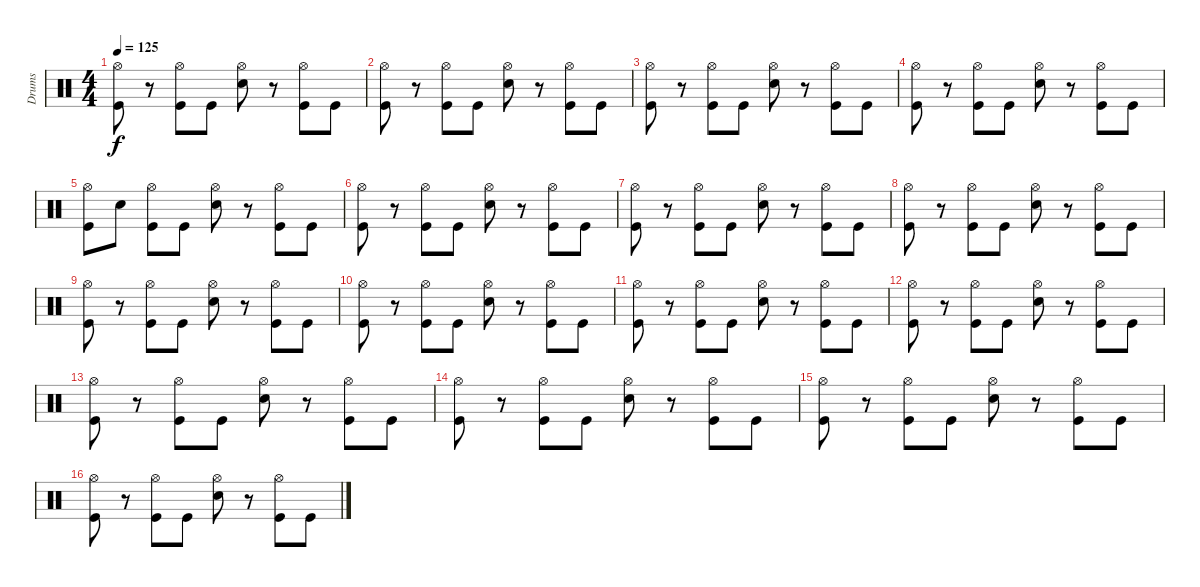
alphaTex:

\track ("Drums" "Drums") {instrument percussion}
\staff {score}
\articulation defaults
\ts (4 4)
\tempo 125
\clef neutral
\ks c
("Hi-Hat (open)" "Kick (hit)").8{dy f} r.8 ("Hi-Hat (open)" "Kick (hit)").8 "Kick (hit)".8 ("Hi-Hat (open)" "Snare (hit) 2").8 r.8 ("Hi-Hat (open)" "Kick (hit)").8 "Kick (hit)".8 |
("Hi-Hat (open)" "Kick (hit)").8 r.8 ("Hi-Hat (open)" "Kick (hit)").8 "Kick (hit)".8 ("Hi-Hat (open)" "Snare (hit) 2").8 r.8 ("Hi-Hat (open)" "Kick (hit)").8 "Kick (hit)".8 |
("Hi-Hat (open)" "Kick (hit)").8 r.8 ("Hi-Hat (open)" "Kick (hit)").8 "Kick (hit)".8 ("Hi-Hat (open)" "Snare (hit) 2").8 r.8 ("Hi-Hat (open)" "Kick (hit)").8 "Kick (hit)".8 |
("Hi-Hat (open)" "Kick (hit)").8 r.8 ("Hi-Hat (open)" "Kick (hit)").8 "Kick (hit)".8 ("Hi-Hat (open)" "Snare (hit) 2").8 r.8 ("Hi-Hat (open)" "Kick (hit)").8 "Kick (hit)".8 |
("Hi-Hat (open)" "Kick (hit)").8 "Snare (hit)".8 ("Hi-Hat (open)" "Kick (hit)").8 "Kick (hit)".8 ("Hi-Hat (open)" "Snare (hit) 2").8 r.8 ("Hi-Hat (open)" "Kick (hit)").8 "Kick (hit)".8 |
("Hi-Hat (open)" "Kick (hit)").8 r.8 ("Hi-Hat (open)" "Kick (hit)").8 "Kick (hit)".8 ("Hi-Hat (open)" "Snare (hit) 2").8 r.8 ("Hi-Hat (open)" "Kick (hit)").8 "Kick (hit)".8 |
("Hi-Hat (open)" "Kick (hit)").8 r.8 ("Hi-Hat (open)" "Kick (hit)").8 "Kick (hit)".8 ("Hi-Hat (open)" "Snare (hit) 2").8 r.8 ("Hi-Hat (open)" "Kick (hit)").8 "Kick (hit)".8 |
("Hi-Hat (open)" "Kick (hit)").8 r.8 ("Hi-Hat (open)" "Kick (hit)").8 "Kick (hit)".8 ("Hi-Hat (open)" "Snare (hit) 2").8 r.8 ("Hi-Hat (open)" "Kick (hit)").8 "Kick (hit)".8 |
("Hi-Hat (open)" "Kick (hit)").8 r.8 ("Hi-Hat (open)" "Kick (hit)").8 "Kick (hit)".8 ("Hi-Hat (open)" "Snare (hit) 2").8 r.8 ("Hi-Hat (open)" "Kick (hit)").8 "Kick (hit)".8 |
("Hi-Hat (open)" "Kick (hit)").8 r.8 ("Hi-Hat (open)" "Kick (hit)").8 "Kick (hit)".8 ("Hi-Hat (open)" "Snare (hit) 2").8 r.8 ("Hi-Hat (open)" "Kick (hit)").8 "Kick (hit)".8 |
("Hi-Hat (open)" "Kick (hit)").8 r.8 ("Hi-Hat (open)" "Kick (hit)").8 "Kick (hit)".8 ("Hi-Hat (open)" "Snare (hit) 2").8 r.8 ("Hi-Hat (open)" "Kick (hit)").8 "Kick (hit)".8 |
("Hi-Hat (open)" "Kick (hit)").8 r.8 ("Hi-Hat (open)" "Kick (hit)").8 "Kick (hit)".8 ("Hi-Hat (open)" "Snare (hit) 2").8 r.8 ("Hi-Hat (open)" "Kick (hit)").8 "Kick (hit)".8 |
("Hi-Hat (open)" "Kick (hit)").8 r.8 ("Hi-Hat (open)" "Kick (hit)").8 "Kick (hit)".8 ("Hi-Hat (open)" "Snare (hit) 2").8 r.8 ("Hi-Hat (open)" "Kick (hit)").8 "Kick (hit)".8 |
("Hi-Hat (open)" "Kick (hit)").8 r.8 ("Hi-Hat (open)" "Kick (hit)").8 "Kick (hit)".8 ("Hi-Hat (open)" "Snare (hit) 2").8 r.8 ("Hi-Hat (open)" "Kick (hit)").8 "Kick (hit)".8 |
("Hi-Hat (open)" "Kick (hit)").8 r.8 ("Hi-Hat (open)" "Kick (hit)").8 "Kick (hit)".8 ("Hi-Hat (open)" "Snare (hit) 2").8 r.8 ("Hi-Hat (open)" "Kick (hit)").8 "Kick (hit)".8 |
("Hi-Hat (open)" "Kick (hit)").8 r.8 ("Hi-Hat (open)" "Kick (hit)").8 "Kick (hit)".8 ("Hi-Hat (open)" "Snare (hit) 2").8 r.8 ("Hi-Hat (open)" "Kick (hit)").8 "Kick (hit)".8
